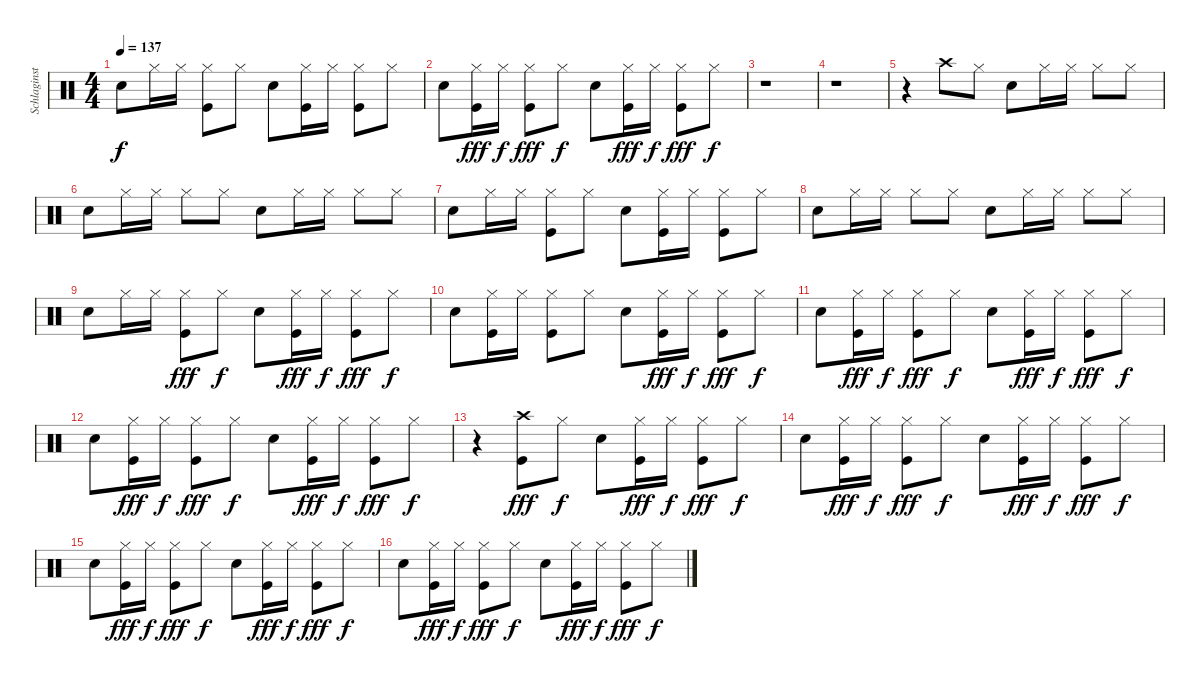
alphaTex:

\track ("Schlaginstrument" "Schlaginst") {instrument percussion}
\staff {score}
\articulation defaults
\ts (4 4)
\tempo 137
\clef neutral
\ks c "Hand Clap (hit)".8{dy f} "Hi-Hat (closed)".16 "Hi-Hat (closed)".16
("Hi-Hat (closed)" "Kick (hit)").8 "Hi-Hat (closed)".8 "Hand Clap (hit)".8 ("Hi-Hat (closed)" "Kick (hit)").16 "Hi-Hat (closed)".16 ("Hi-Hat (closed)" "Kick (hit)").8 "Hi-Hat (closed)".8 |
"Hand Clap (hit)".8 ("Hi-Hat (closed)" "Kick (hit)").16{dy fff} "Hi-Hat (closed)".16{dy f} ("Hi-Hat (closed)" "Kick (hit)").8{dy fff} "Hi-Hat (closed)".8{dy f} "Hand Clap (hit)".8 ("Hi-Hat (closed)" "Kick (hit)").16{dy fff} "Hi-Hat (closed)".16{dy f} ("Hi-Hat (closed)" "Kick (hit)").8{dy fff} "Hi-Hat (closed)".8{dy f} |
r.1 |
r.1 |
r.4 "Crash high (hit)".8 "Hi-Hat (closed)".8 "Hand Clap (hit)".8 "Hi-Hat (closed)".16 "Hi-Hat (closed)".16 "Hi-Hat (closed)".8 "Hi-Hat (closed)".8 |
"Hand Clap (hit)".8 "Hi-Hat (closed)".16 "Hi-Hat (closed)".16 "Hi-Hat (closed)".8 "Hi-Hat (closed)".8 "Hand Clap (hit)".8 "Hi-Hat (closed)".16 "Hi-Hat (closed)".16 "Hi-Hat (closed)".8 "Hi-Hat (closed)".8 |
"Hand Clap (hit)".8 "Hi-Hat (closed)".16 "Hi-Hat (closed)".16 ("Hi-Hat (closed)" "Kick (hit)").8 "Hi-Hat (closed)".8 "Hand Clap (hit)".8 ("Hi-Hat (closed)" "Kick (hit)").16 "Hi-Hat (closed)".16 ("Hi-Hat (closed)" "Kick (hit)").8 "Hi-Hat (closed)".8 |
"Hand Clap (hit)".8 "Hi-Hat (closed)".16 "Hi-Hat (closed)".16 "Hi-Hat (closed)".8 "Hi-Hat (closed)".8 "Hand Clap (hit)".8 "Hi-Hat (closed)".16 "Hi-Hat (closed)".16 "Hi-Hat (closed)".8 "Hi-Hat (closed)".8 |
"Hand Clap (hit)".8 "Hi-Hat (closed)".16 "Hi-Hat (closed)".16 ("Hi-Hat (closed)" "Kick (hit)").8{dy fff} "Hi-Hat (closed)".8{dy f} "Hand Clap (hit)".8 ("Hi-Hat (closed)" "Kick (hit)").16{dy fff} "Hi-Hat (closed)".16{dy f} ("Hi-Hat (closed)" "Kick (hit)").8{dy fff} "Hi-Hat (closed)".8{dy f} |
"Hand Clap (hit)".8 ("Hi-Hat (closed)" "Kick (hit)").16 "Hi-Hat (closed)".16 ("Hi-Hat (closed)" "Kick (hit)").8 "Hi-Hat (closed)".8 "Hand Clap (hit)".8 ("Hi-Hat (closed)" "Kick (hit)").16{dy fff} "Hi-Hat (closed)".16{dy f} ("Hi-Hat (closed)" "Kick (hit)").8{dy fff} "Hi-Hat (closed)".8{dy f} |
"Hand Clap (hit)".8 ("Hi-Hat (closed)" "Kick (hit)").16{dy fff} "Hi-Hat (closed)".16{dy f} ("Hi-Hat (closed)" "Kick (hit)").8{dy fff} "Hi-Hat (closed)".8{dy f} "Hand Clap (hit)".8 ("Hi-Hat (closed)" "Kick (hit)").16{dy fff} "Hi-Hat (closed)".16{dy f} ("Hi-Hat (closed)" "Kick (hit)").8{dy fff} "Hi-Hat (closed)".8{dy f} |
"Hand Clap (hit)".8 ("Hi-Hat (closed)" "Kick (hit)").16{dy fff} "Hi-Hat (closed)".16{dy f} ("Hi-Hat (closed)" "Kick (hit)").8{dy fff} "Hi-Hat (closed)".8{dy f} "Hand Clap (hit)".8 ("Hi-Hat (closed)" "Kick (hit)").16{dy fff} "Hi-Hat (closed)".16{dy f} ("Hi-Hat (closed)" "Kick (hit)").8{dy fff} "Hi-Hat (closed)".8{dy f} |
r.4 ("Crash high (hit)" "Kick (hit)").8{dy fff} "Hi-Hat (closed)".8{dy f} "Hand Clap (hit)".8 ("Hi-Hat (closed)" "Kick (hit)").16{dy fff} "Hi-Hat (closed)".16{dy f} ("Hi-Hat (closed)" "Kick (hit)").8{dy fff} "Hi-Hat (closed)".8{dy f} |
"Hand Clap (hit)".8 ("Hi-Hat (closed)" "Kick (hit)").16{dy fff} "Hi-Hat (closed)".16{dy f} ("Hi-Hat (closed)" "Kick (hit)").8{dy fff} "Hi-Hat (closed)".8{dy f} "Hand Clap (hit)".8 ("Hi-Hat (closed)" "Kick (hit)").16{dy fff} "Hi-Hat (closed)".16{dy f} ("Hi-Hat (closed)" "Kick (hit)").8{dy fff} "Hi-Hat (closed)".8{dy f} |
"Hand Clap (hit)".8 ("Hi-Hat (closed)" "Kick (hit)").16{dy fff} "Hi-Hat (closed)".16{dy f} ("Hi-Hat (closed)" "Kick (hit)").8{dy fff} "Hi-Hat (closed)".8{dy f} "Hand Clap (hit)".8 ("Hi-Hat (closed)" "Kick (hit)").16{dy fff} "Hi-Hat (closed)".16{dy f} ("Hi-Hat (closed)" "Kick (hit)").8{dy fff} "Hi-Hat (closed)".8{dy f} |
"Hand Clap (hit)".8 ("Hi-Hat (closed)" "Kick (hit)").16{dy fff} "Hi-Hat (closed)".16{dy f} ("Hi-Hat (closed)" "Kick (hit)").8{dy fff} "Hi-Hat (closed)".8{dy f} "Hand Clap (hit)".8 ("Hi-Hat (closed)" "Kick (hit)").16{dy fff} "Hi-Hat (closed)".16{dy f} ("Hi-Hat (closed)" "Kick (hit)").8{dy fff} "Hi-Hat (closed)".8{dy f}
